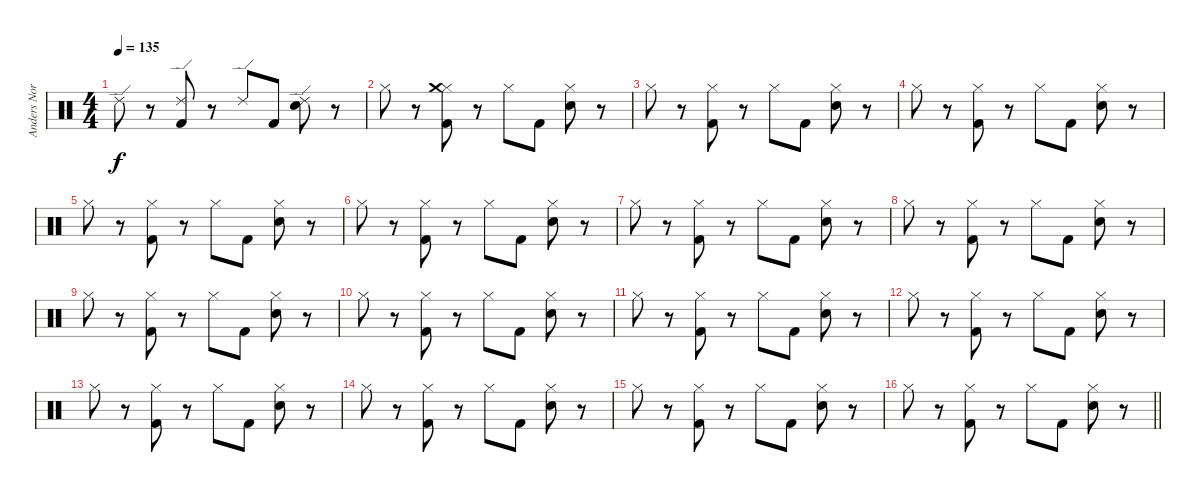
\track ("Anders Nordin" "Anders Nor") {instrument percussion}
\staff {score}
\articulation defaults
\ts (4 4)
\tempo 135
\clef neutral
\ks c "Ride (edge) 2".8{dy f}
r.8 ("Ride (edge) 2" "Kick (hit) 2").8 r.8 "Ride (edge) 2".8 "Kick (hit) 2".8 ("Ride (edge) 2" "Snare (hit) 2").8 r.8 |
"Hi-Hat (closed)".8 r.8 ("Hi-Hat (closed)" "Crash medium (hit)" "Kick (hit) 2").8 r.8 "Hi-Hat (closed)".8 "Kick (hit) 2".8 ("Hi-Hat (closed)" "Snare (hit) 2").8 r.8 |
"Hi-Hat (closed)".8 r.8 ("Hi-Hat (closed)" "Kick (hit) 2").8 r.8 "Hi-Hat (closed)".8 "Kick (hit) 2".8 ("Hi-Hat (closed)" "Snare (hit) 2").8 r.8 |
"Hi-Hat (closed)".8 r.8 ("Hi-Hat (closed)" "Kick (hit) 2").8 r.8 "Hi-Hat (closed)".8 "Kick (hit) 2".8 ("Hi-Hat (closed)" "Snare (hit) 2").8 r.8 |
"Hi-Hat (closed)".8 r.8 ("Hi-Hat (closed)" "Kick (hit) 2").8 r.8 "Hi-Hat (closed)".8 "Kick (hit) 2".8 ("Hi-Hat (closed)" "Snare (hit) 2").8 r.8 |
"Hi-Hat (closed)".8 r.8 ("Hi-Hat (closed)" "Kick (hit) 2").8 r.8 "Hi-Hat (closed)".8 "Kick (hit) 2".8 ("Hi-Hat (closed)" "Snare (hit) 2").8 r.8 |
"Hi-Hat (closed)".8 r.8 ("Hi-Hat (closed)" "Kick (hit) 2").8 r.8 "Hi-Hat (closed)".8 "Kick (hit) 2".8 ("Hi-Hat (closed)" "Snare (hit) 2").8 r.8 |
"Hi-Hat (closed)".8 r.8 ("Hi-Hat (closed)" "Kick (hit) 2").8 r.8 "Hi-Hat (closed)".8 "Kick (hit) 2".8 ("Hi-Hat (closed)" "Snare (hit) 2").8 r.8 |
"Hi-Hat (closed)".8 r.8 ("Hi-Hat (closed)" "Kick (hit) 2").8 r.8 "Hi-Hat (closed)".8 "Kick (hit) 2".8 ("Hi-Hat (closed)" "Snare (hit) 2").8 r.8 |
"Hi-Hat (closed)".8 r.8 ("Hi-Hat (closed)" "Kick (hit) 2").8 r.8 "Hi-Hat (closed)".8 "Kick (hit) 2".8 ("Hi-Hat (closed)" "Snare (hit) 2").8 r.8 |
"Hi-Hat (closed)".8 r.8 ("Hi-Hat (closed)" "Kick (hit) 2").8 r.8 "Hi-Hat (closed)".8 "Kick (hit) 2".8 ("Hi-Hat (closed)" "Snare (hit) 2").8 r.8 |
"Hi-Hat (closed)".8 r.8 ("Hi-Hat (closed)" "Kick (hit) 2").8 r.8 "Hi-Hat (closed)".8 "Kick (hit) 2".8 ("Hi-Hat (closed)" "Snare (hit) 2").8 r.8 |
"Hi-Hat (closed)".8 r.8 ("Hi-Hat (closed)" "Kick (hit) 2").8 r.8 "Hi-Hat (closed)".8 "Kick (hit) 2".8 ("Hi-Hat (closed)" "Snare (hit) 2").8 r.8 |
"Hi-Hat (closed)".8 r.8 ("Hi-Hat (closed)" "Kick (hit) 2").8 r.8 "Hi-Hat (closed)".8 "Kick (hit) 2".8 ("Hi-Hat (closed)" "Snare (hit) 2").8 r.8 |
"Hi-Hat (closed)".8 r.8 ("Hi-Hat (closed)" "Kick (hit) 2").8 r.8 "Hi-Hat (closed)".8 "Kick (hit) 2".8 ("Hi-Hat (closed)" "Snare (hit) 2").8 r.8 |
\barLineRight lightlight "Hi-Hat (closed)".8
r.8 ("Hi-Hat (closed)" "Kick (hit) 2").8 r.8 "Hi-Hat (closed)".8 "Kick (hit) 2".8 ("Hi-Hat (closed)" "Snare (hit) 2").8 r.8
